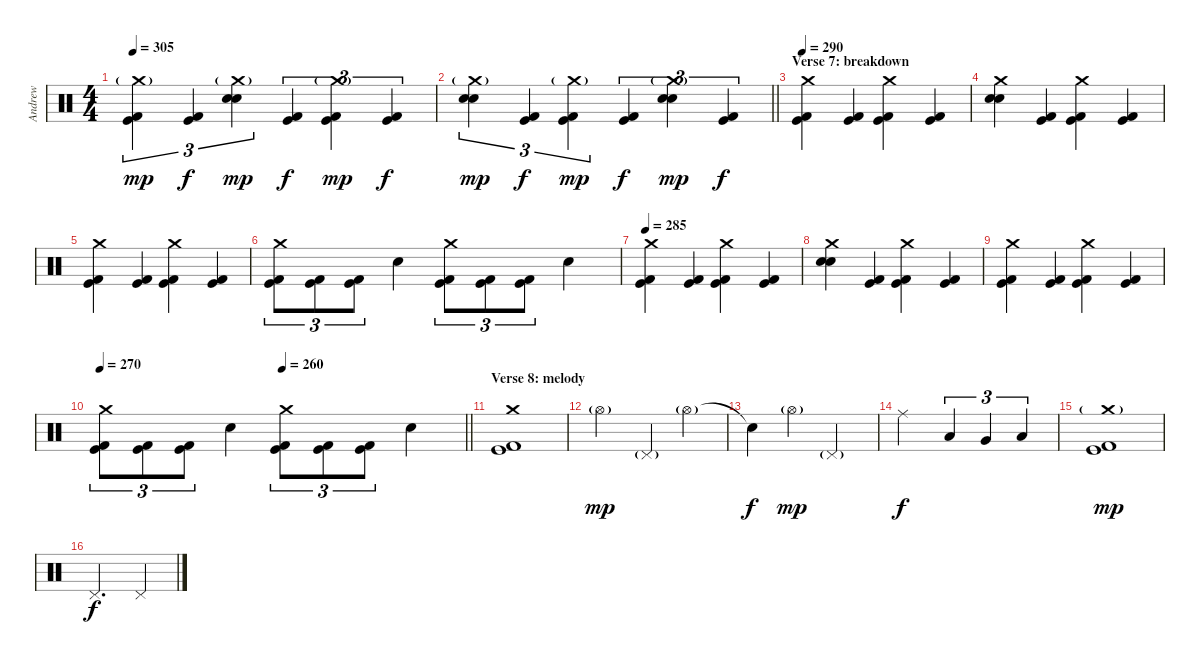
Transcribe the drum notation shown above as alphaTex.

\track ("Andrew" "Andrew") {instrument percussion}
\staff {score}
\articulation defaults
\ts (4 4)
\tempo 305
\clef neutral
\ks c
("Crash medium (hit)"{g} "Kick (hit)" "Kick (hit) 2").4{tu (3 2) dy mp} ("Kick (hit)" "Kick (hit) 2").4{tu (3 2) dy f} ("Crash medium (hit)"{g} "Snare (hit) 2" "Snare (hit) 2").4{tu (3 2) dy mp} ("Kick (hit)" "Kick (hit) 2").4{tu (3 2) dy f} ("Crash medium (hit)"{g} "Kick (hit)" "Kick (hit) 2").4{tu (3 2) dy mp} ("Kick (hit)" "Kick (hit) 2").4{tu (3 2) dy f} |
\barLineRight lightlight
("Crash medium (hit)"{g} "Snare (hit) 2" "Snare (hit) 2").4{tu (3 2) dy mp} ("Kick (hit)" "Kick (hit) 2").4{tu (3 2) dy f} ("Crash medium (hit)"{g} "Kick (hit)" "Kick (hit) 2").4{tu (3 2) dy mp} ("Kick (hit)" "Kick (hit) 2").4{tu (3 2) dy f} ("Crash medium (hit)"{g} "Snare (hit) 2" "Snare (hit) 2").4{tu (3 2) dy mp} ("Kick (hit)" "Kick (hit) 2").4{tu (3 2) dy f} |
\section ("" "Verse 7: breakdown")
\tempo 290
("Crash medium (hit)" "Kick (hit)" "Kick (hit) 2").4 ("Kick (hit)" "Kick (hit) 2").4 ("Crash medium (hit)" "Kick (hit)" "Kick (hit) 2").4 ("Kick (hit)" "Kick (hit) 2").4 |
("Crash medium (hit)" "Snare (hit) 2" "Snare (hit) 2").4 ("Kick (hit)" "Kick (hit) 2").4 ("Crash medium (hit)" "Kick (hit)" "Kick (hit) 2").4 ("Kick (hit)" "Kick (hit) 2").4 |
("Crash medium (hit)" "Kick (hit)" "Kick (hit) 2").4 ("Kick (hit)" "Kick (hit) 2").4 ("Crash medium (hit)" "Kick (hit)" "Kick (hit) 2").4 ("Kick (hit)" "Kick (hit) 2").4 |
("Crash medium (hit)" "Kick (hit)" "Kick (hit) 2").8{tu (3 2)} ("Kick (hit)" "Kick (hit) 2").8{tu (3 2)} ("Kick (hit)" "Kick (hit) 2").8{tu (3 2)} "Snare (hit) 2".4 ("Crash medium (hit)" "Kick (hit)" "Kick (hit) 2").8{tu (3 2)} ("Kick (hit)" "Kick (hit) 2").8{tu (3 2)} ("Kick (hit)" "Kick (hit) 2").8{tu (3 2)} "Snare (hit) 2".4 |
\tempo 285
("Crash medium (hit)" "Kick (hit)" "Kick (hit) 2").4 ("Kick (hit)" "Kick (hit) 2").4 ("Crash medium (hit)" "Kick (hit)" "Kick (hit) 2").4 ("Kick (hit)" "Kick (hit) 2").4 |
("Crash medium (hit)" "Snare (hit) 2" "Snare (hit) 2").4 ("Kick (hit)" "Kick (hit) 2").4 ("Crash medium (hit)" "Kick (hit)" "Kick (hit) 2").4 ("Kick (hit)" "Kick (hit) 2").4 |
("Crash medium (hit)" "Kick (hit)" "Kick (hit) 2").4 ("Kick (hit)" "Kick (hit) 2").4 ("Crash medium (hit)" "Kick (hit)" "Kick (hit) 2").4 ("Kick (hit)" "Kick (hit) 2").4 |
\tempo 270
\tempo (260 0.5)
\barLineRight lightlight
("Crash medium (hit)" "Kick (hit)" "Kick (hit) 2").8{tu (3 2)} ("Kick (hit)" "Kick (hit) 2").8{tu (3 2)} ("Kick (hit)" "Kick (hit) 2").8{tu (3 2)} "Snare (hit) 2".4 ("Crash medium (hit)" "Kick (hit)" "Kick (hit) 2").8{tu (3 2)} ("Kick (hit)" "Kick (hit) 2").8{tu (3 2)} ("Kick (hit)" "Kick (hit) 2").8{tu (3 2)} "Snare (hit) 2".4 |
\section ("" "Verse 8: melody")
("Crash medium (hit)" "Kick (hit)" "Kick (hit) 2").1 |
"Hi-Hat (open)"{g}.2{dy mp} "Pedal Hi-Hat (hit)"{g}.4 "Hi-Hat (open)"{g}.4 |
"Snare (hit)"{t}.4{dy f} "Hi-Hat (open)"{g}.4{dy mp} "Pedal Hi-Hat (hit)"{g}.2 |
"Ride (middle)".2{dy f} "Low Tom (hit)".4{tu (3 2)} "Very Low Tom (hit)".4{tu (3 2)} "Low Floor Tom (hit)".4{tu (3 2)} |
("Crash medium (hit)"{g} "Kick (hit)" "Kick (hit) 2").1{dy mp} |
"Pedal Hi-Hat (hit)".2{d dy f} "Pedal Hi-Hat (hit)".4
